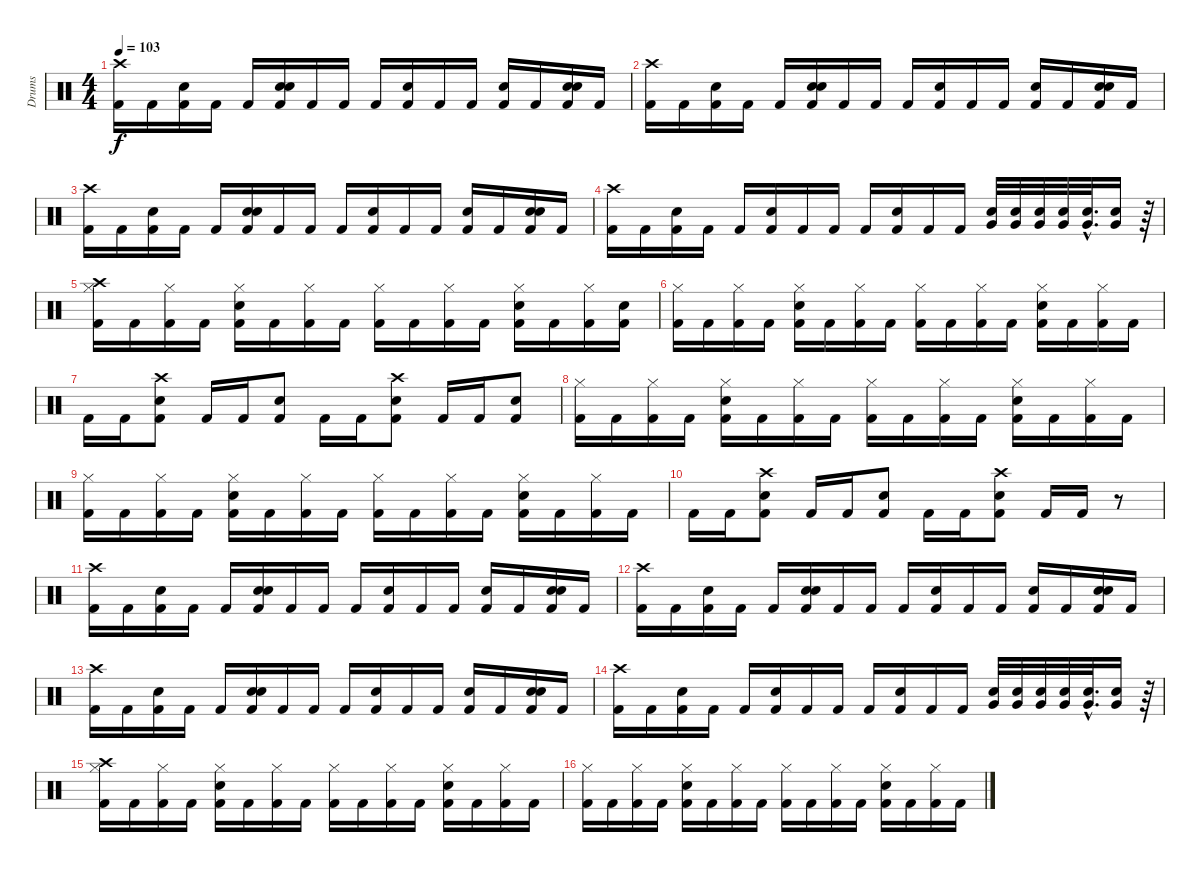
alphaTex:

\track ("Drums" "Drums") {instrument percussion}
\staff {score}
\articulation defaults
\ts (4 4)
\tempo 103
\clef neutral
\ks c
("Crash high (hit)" "Kick (hit) 2").16{dy f} "Kick (hit) 2".16 ("Snare (hit) 2" "Kick (hit) 2").16 "Kick (hit) 2".16 "Kick (hit) 2".16 ("Snare (hit) 2" "Electric Snare (hit)" "Kick (hit) 2").16 "Kick (hit) 2".16 "Kick (hit) 2".16 "Kick (hit) 2".16 ("Snare (hit) 2" "Kick (hit) 2").16 "Kick (hit) 2".16 "Kick (hit) 2".16 ("Snare (hit) 2" "Kick (hit) 2").16 "Kick (hit) 2".16 ("Snare (hit) 2" "Electric Snare (hit)" "Kick (hit) 2").16 "Kick (hit) 2".16 |
("Crash high (hit)" "Kick (hit) 2").16 "Kick (hit) 2".16 ("Snare (hit) 2" "Kick (hit) 2").16 "Kick (hit) 2".16 "Kick (hit) 2".16 ("Electric Snare (hit)" "Snare (hit) 2" "Kick (hit) 2").16 "Kick (hit) 2".16 "Kick (hit) 2".16 "Kick (hit) 2".16 ("Snare (hit) 2" "Kick (hit) 2").16 "Kick (hit) 2".16 "Kick (hit) 2".16 ("Snare (hit) 2" "Kick (hit) 2").16 "Kick (hit) 2".16 ("Electric Snare (hit)" "Snare (hit) 2" "Kick (hit) 2").16 "Kick (hit) 2".16 |
("Crash high (hit)" "Kick (hit) 2").16 "Kick (hit) 2".16 ("Snare (hit) 2" "Kick (hit) 2").16 "Kick (hit) 2".16 "Kick (hit) 2".16 ("Electric Snare (hit)" "Snare (hit) 2" "Kick (hit) 2").16 "Kick (hit) 2".16 "Kick (hit) 2".16 "Kick (hit) 2".16 ("Snare (hit) 2" "Kick (hit) 2").16 "Kick (hit) 2".16 "Kick (hit) 2".16 ("Snare (hit) 2" "Kick (hit) 2").16 "Kick (hit) 2".16 ("Electric Snare (hit)" "Snare (hit) 2" "Kick (hit) 2").16 "Kick (hit) 2".16 |
("Crash high (hit)" "Kick (hit) 2").16 "Kick (hit) 2".16 ("Electric Snare (hit)" "Kick (hit) 2").16 "Kick (hit) 2".16 "Kick (hit) 2".16 ("Electric Snare (hit)" "Kick (hit) 2").16 "Kick (hit) 2".16 "Kick (hit) 2".16 "Kick (hit) 2".16 ("Electric Snare (hit)" "Kick (hit) 2").16 "Kick (hit) 2".16 "Kick (hit) 2".16 ("Electric Snare (hit)" "Very Low Tom (hit)").32 ("Electric Snare (hit)" "Very Low Tom (hit)").32 ("Electric Snare (hit)" "Very Low Tom (hit)").32 ("Electric Snare (hit)" "Very Low Tom (hit)").32 ("Electric Snare (hit)"{hac} "Very Low Tom (hit)"{hac}).32{d} ("Electric Snare (hit)" "Very Low Tom (hit)").16 r.64 |
("Hi-Hat (closed)" "Crash high (hit)" "Kick (hit) 2").16 "Kick (hit) 2".16 ("Hi-Hat (closed)" "Kick (hit) 2").16 "Kick (hit) 2".16 ("Hi-Hat (closed)" "Electric Snare (hit)" "Kick (hit) 2").16 "Kick (hit) 2".16 ("Hi-Hat (closed)" "Kick (hit) 2").16 "Kick (hit) 2".16 ("Hi-Hat (closed)" "Kick (hit) 2").16 "Kick (hit) 2".16 ("Hi-Hat (closed)" "Kick (hit) 2").16 "Kick (hit) 2".16 ("Hi-Hat (closed)" "Electric Snare (hit)" "Kick (hit) 2").16 "Kick (hit) 2".16 ("Hi-Hat (closed)" "Kick (hit) 2").16 ("Electric Snare (hit)" "Kick (hit) 2").16 |
("Hi-Hat (closed)" "Kick (hit) 2").16 "Kick (hit) 2".16 ("Hi-Hat (closed)" "Kick (hit) 2").16 "Kick (hit) 2".16 ("Hi-Hat (closed)" "Electric Snare (hit)" "Kick (hit) 2").16 "Kick (hit) 2".16 ("Hi-Hat (closed)" "Kick (hit) 2").16 "Kick (hit) 2".16 ("Hi-Hat (closed)" "Kick (hit) 2").16 "Kick (hit) 2".16 ("Hi-Hat (closed)" "Kick (hit) 2").16 "Kick (hit) 2".16 ("Hi-Hat (closed)" "Electric Snare (hit)" "Kick (hit) 2").16 "Kick (hit) 2".16 ("Hi-Hat (closed)" "Kick (hit) 2").16 "Kick (hit) 2".16 |
"Kick (hit) 2".16 "Kick (hit) 2".16 ("Crash high (hit)" "Electric Snare (hit)" "Kick (hit) 2").8 "Kick (hit) 2".16 "Kick (hit) 2".16 ("Electric Snare (hit)" "Kick (hit) 2").8 "Kick (hit) 2".16 "Kick (hit) 2".16 ("Crash high (hit)" "Electric Snare (hit)" "Kick (hit) 2").8 "Kick (hit) 2".16 "Kick (hit) 2".16 ("Electric Snare (hit)" "Kick (hit) 2").8 |
("Hi-Hat (closed)" "Kick (hit) 2").16 "Kick (hit) 2".16 ("Hi-Hat (closed)" "Kick (hit) 2").16 "Kick (hit) 2".16 ("Hi-Hat (closed)" "Electric Snare (hit)" "Kick (hit) 2").16 "Kick (hit) 2".16 ("Hi-Hat (closed)" "Kick (hit) 2").16 "Kick (hit) 2".16 ("Hi-Hat (closed)" "Kick (hit) 2").16 "Kick (hit) 2".16 ("Hi-Hat (closed)" "Kick (hit) 2").16 "Kick (hit) 2".16 ("Hi-Hat (closed)" "Electric Snare (hit)" "Kick (hit) 2").16 "Kick (hit) 2".16 ("Hi-Hat (closed)" "Kick (hit) 2").16 "Kick (hit) 2".16 |
("Hi-Hat (closed)" "Kick (hit) 2").16 "Kick (hit) 2".16 ("Hi-Hat (closed)" "Kick (hit) 2").16 "Kick (hit) 2".16 ("Hi-Hat (closed)" "Electric Snare (hit)" "Kick (hit) 2").16 "Kick (hit) 2".16 ("Hi-Hat (closed)" "Kick (hit) 2").16 "Kick (hit) 2".16 ("Hi-Hat (closed)" "Kick (hit) 2").16 "Kick (hit) 2".16 ("Hi-Hat (closed)" "Kick (hit) 2").16 "Kick (hit) 2".16 ("Hi-Hat (closed)" "Electric Snare (hit)" "Kick (hit) 2").16 "Kick (hit) 2".16 ("Hi-Hat (closed)" "Kick (hit) 2").16 "Kick (hit) 2".16 |
"Kick (hit) 2".16 "Kick (hit) 2".16 ("Crash high (hit)" "Electric Snare (hit)" "Kick (hit) 2").8 "Kick (hit) 2".16 "Kick (hit) 2".16 ("Electric Snare (hit)" "Kick (hit) 2").8 "Kick (hit) 2".16 "Kick (hit) 2".16 ("Crash high (hit)" "Electric Snare (hit)" "Kick (hit) 2").8 "Kick (hit) 2".16 "Kick (hit) 2".16 r.8 |
("Crash high (hit)" "Kick (hit) 2").16 "Kick (hit) 2".16 ("Snare (hit) 2" "Kick (hit) 2").16 "Kick (hit) 2".16 "Kick (hit) 2".16 ("Snare (hit) 2" "Electric Snare (hit)" "Kick (hit) 2").16 "Kick (hit) 2".16 "Kick (hit) 2".16 "Kick (hit) 2".16 ("Snare (hit) 2" "Kick (hit) 2").16 "Kick (hit) 2".16 "Kick (hit) 2".16 ("Snare (hit) 2" "Kick (hit) 2").16 "Kick (hit) 2".16 ("Snare (hit) 2" "Electric Snare (hit)" "Kick (hit) 2").16 "Kick (hit) 2".16 |
("Crash high (hit)" "Kick (hit) 2").16 "Kick (hit) 2".16 ("Snare (hit) 2" "Kick (hit) 2").16 "Kick (hit) 2".16 "Kick (hit) 2".16 ("Electric Snare (hit)" "Snare (hit) 2" "Kick (hit) 2").16 "Kick (hit) 2".16 "Kick (hit) 2".16 "Kick (hit) 2".16 ("Snare (hit) 2" "Kick (hit) 2").16 "Kick (hit) 2".16 "Kick (hit) 2".16 ("Snare (hit) 2" "Kick (hit) 2").16 "Kick (hit) 2".16 ("Electric Snare (hit)" "Snare (hit) 2" "Kick (hit) 2").16 "Kick (hit) 2".16 |
("Crash high (hit)" "Kick (hit) 2").16 "Kick (hit) 2".16 ("Snare (hit) 2" "Kick (hit) 2").16 "Kick (hit) 2".16 "Kick (hit) 2".16 ("Electric Snare (hit)" "Snare (hit) 2" "Kick (hit) 2").16 "Kick (hit) 2".16 "Kick (hit) 2".16 "Kick (hit) 2".16 ("Snare (hit) 2" "Kick (hit) 2").16 "Kick (hit) 2".16 "Kick (hit) 2".16 ("Snare (hit) 2" "Kick (hit) 2").16 "Kick (hit) 2".16 ("Electric Snare (hit)" "Snare (hit) 2" "Kick (hit) 2").16 "Kick (hit) 2".16 |
("Crash high (hit)" "Kick (hit) 2").16 "Kick (hit) 2".16 ("Electric Snare (hit)" "Kick (hit) 2").16 "Kick (hit) 2".16 "Kick (hit) 2".16 ("Electric Snare (hit)" "Kick (hit) 2").16 "Kick (hit) 2".16 "Kick (hit) 2".16 "Kick (hit) 2".16 ("Electric Snare (hit)" "Kick (hit) 2").16 "Kick (hit) 2".16 "Kick (hit) 2".16 ("Electric Snare (hit)" "Very Low Tom (hit)").32 ("Electric Snare (hit)" "Very Low Tom (hit)").32 ("Electric Snare (hit)" "Very Low Tom (hit)").32 ("Electric Snare (hit)" "Very Low Tom (hit)").32 ("Electric Snare (hit)"{hac} "Very Low Tom (hit)"{hac}).32{d} ("Electric Snare (hit)" "Very Low Tom (hit)").16 r.64 |
("Hi-Hat (closed)" "Crash high (hit)" "Kick (hit) 2").16 "Kick (hit) 2".16 ("Hi-Hat (closed)" "Kick (hit) 2").16 "Kick (hit) 2".16 ("Hi-Hat (closed)" "Electric Snare (hit)" "Kick (hit) 2").16 "Kick (hit) 2".16 ("Hi-Hat (closed)" "Kick (hit) 2").16 "Kick (hit) 2".16 ("Hi-Hat (closed)" "Kick (hit) 2").16 "Kick (hit) 2".16 ("Hi-Hat (closed)" "Kick (hit) 2").16 "Kick (hit) 2".16 ("Hi-Hat (closed)" "Electric Snare (hit)" "Kick (hit) 2").16 "Kick (hit) 2".16 ("Hi-Hat (closed)" "Kick (hit) 2").16 "Kick (hit) 2".16 |
("Hi-Hat (closed)" "Kick (hit) 2").16 "Kick (hit) 2".16 ("Hi-Hat (closed)" "Kick (hit) 2").16 "Kick (hit) 2".16 ("Hi-Hat (closed)" "Electric Snare (hit)" "Kick (hit) 2").16 "Kick (hit) 2".16 ("Hi-Hat (closed)" "Kick (hit) 2").16 "Kick (hit) 2".16 ("Hi-Hat (closed)" "Kick (hit) 2").16 "Kick (hit) 2".16 ("Hi-Hat (closed)" "Kick (hit) 2").16 "Kick (hit) 2".16 ("Hi-Hat (closed)" "Electric Snare (hit)" "Kick (hit) 2").16 "Kick (hit) 2".16 ("Hi-Hat (closed)" "Kick (hit) 2").16 "Kick (hit) 2".16
